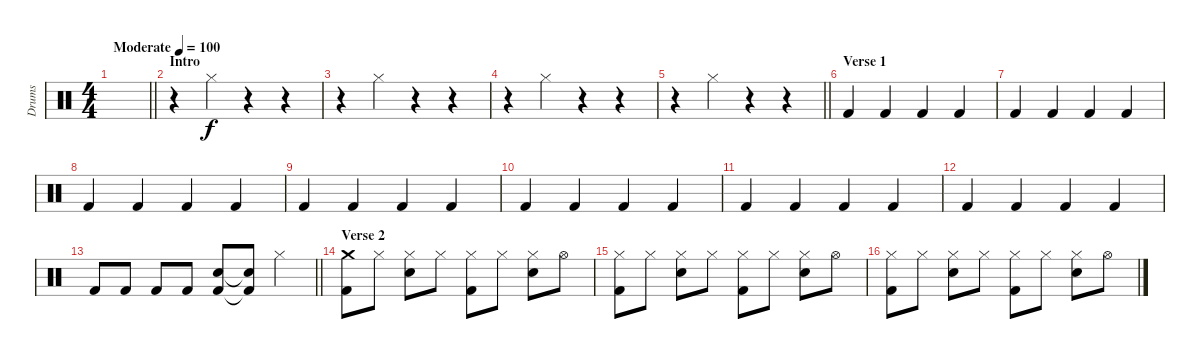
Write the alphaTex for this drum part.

\track ("Drums" "Drums") {instrument percussion}
\staff {score}
\articulation defaults
\ts (4 4)
\tempo (100 "Moderate")
\clef neutral
\barLineRight lightlight
\ks c
|
\section ("" "Intro")
r.4 "Hi-Hat (closed)".4 r.4 r.4 |
r.4 "Hi-Hat (closed)".4 r.4 r.4 |
r.4 "Hi-Hat (closed)".4 r.4 r.4 |
\barLineRight lightlight
r.4 "Hi-Hat (closed)".4 r.4 r.4 |
\section ("" "Verse 1")
"Kick (hit) 2".4 "Kick (hit) 2".4 "Kick (hit) 2".4 "Kick (hit) 2".4 |
"Kick (hit) 2".4 "Kick (hit) 2".4 "Kick (hit) 2".4 "Kick (hit) 2".4 |
"Kick (hit) 2".4 "Kick (hit) 2".4 "Kick (hit) 2".4 "Kick (hit) 2".4 |
"Kick (hit) 2".4 "Kick (hit) 2".4 "Kick (hit) 2".4 "Kick (hit) 2".4 |
"Kick (hit) 2".4 "Kick (hit) 2".4 "Kick (hit) 2".4 "Kick (hit) 2".4 |
"Kick (hit) 2".4 "Kick (hit) 2".4 "Kick (hit) 2".4 "Kick (hit) 2".4 |
"Kick (hit) 2".4 "Kick (hit) 2".4 "Kick (hit) 2".4 "Kick (hit) 2".4 |
\barLineRight lightlight "Kick (hit) 2".8 "Kick (hit) 2".8 "Kick (hit) 2".8 "Kick (hit) 2".8
("Electric Snare (hit)" "Kick (hit) 2").8 ("Electric Snare (hit)"{t} "Kick (hit) 2"{t}).8 "Hi-Hat (closed)".4 |
\section ("" "Verse 2")
("Crash medium (hit)" "Kick (hit) 2").8 "Hi-Hat (closed)".8 ("Hi-Hat (closed)" "Electric Snare (hit)").8 "Hi-Hat (closed)".8 ("Hi-Hat (closed)" "Kick (hit) 2").8 "Hi-Hat (closed)".8 ("Hi-Hat (closed)" "Electric Snare (hit)").8 "Hi-Hat (open)".8 |
("Hi-Hat (closed)" "Kick (hit) 2").8 "Hi-Hat (closed)".8 ("Hi-Hat (closed)" "Electric Snare (hit)").8 "Hi-Hat (closed)".8 ("Hi-Hat (closed)" "Kick (hit) 2").8 "Hi-Hat (closed)".8 ("Hi-Hat (closed)" "Electric Snare (hit)").8 "Hi-Hat (open)".8 |
("Hi-Hat (closed)" "Kick (hit) 2").8 "Hi-Hat (closed)".8 ("Hi-Hat (closed)" "Electric Snare (hit)").8 "Hi-Hat (closed)".8 ("Hi-Hat (closed)" "Kick (hit) 2").8 "Hi-Hat (closed)".8 ("Hi-Hat (closed)" "Electric Snare (hit)").8 "Hi-Hat (open)".8
